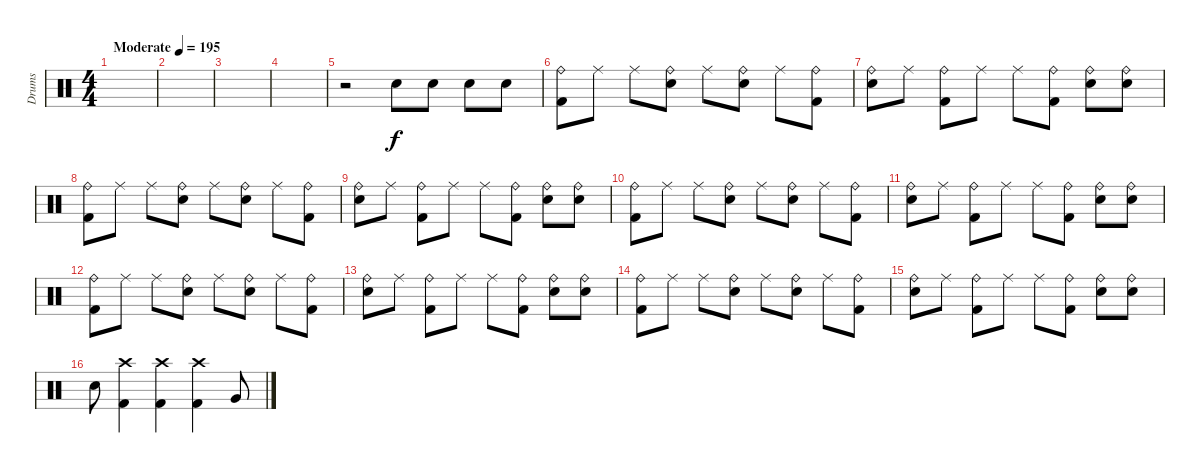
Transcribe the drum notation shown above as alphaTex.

\track ("Drums" "Drums") {instrument percussion}
\staff {score}
\articulation defaults
\ts (4 4)
\tempo (195 "Moderate")
\clef neutral
\ks c
|
|
|
|
r.2 "Snare (hit) 2".8 "Snare (hit) 2".8 "Snare (hit) 2".8 "Snare (hit) 2".8 |
("Ride (bell)" "Kick (hit) 2").8 "Ride (middle)".8 "Ride (middle)".8 ("Ride (bell)" "Snare (hit) 2").8 "Ride (middle)".8 ("Ride (bell)" "Snare (hit) 2").8 "Ride (middle)".8 ("Ride (bell)" "Kick (hit) 2").8 |
("Ride (bell)" "Snare (hit) 2").8 "Ride (middle)".8 ("Ride (bell)" "Kick (hit) 2").8 "Ride (middle)".8 "Ride (middle)".8 ("Ride (bell)" "Kick (hit) 2").8 ("Ride (bell)" "Snare (hit) 2").8 ("Ride (bell)" "Snare (hit) 2").8 |
("Ride (bell)" "Kick (hit) 2").8 "Ride (middle)".8 "Ride (middle)".8 ("Ride (bell)" "Snare (hit) 2").8 "Ride (middle)".8 ("Ride (bell)" "Snare (hit) 2").8 "Ride (middle)".8 ("Ride (bell)" "Kick (hit) 2").8 |
("Ride (bell)" "Snare (hit) 2").8 "Ride (middle)".8 ("Ride (bell)" "Kick (hit) 2").8 "Ride (middle)".8 "Ride (middle)".8 ("Ride (bell)" "Kick (hit) 2").8 ("Ride (bell)" "Snare (hit) 2").8 ("Ride (bell)" "Snare (hit) 2").8 |
("Ride (bell)" "Kick (hit) 2").8 "Ride (middle)".8 "Ride (middle)".8 ("Ride (bell)" "Snare (hit) 2").8 "Ride (middle)".8 ("Ride (bell)" "Snare (hit) 2").8 "Ride (middle)".8 ("Ride (bell)" "Kick (hit) 2").8 |
("Ride (bell)" "Snare (hit) 2").8 "Ride (middle)".8 ("Ride (bell)" "Kick (hit) 2").8 "Ride (middle)".8 "Ride (middle)".8 ("Ride (bell)" "Kick (hit) 2").8 ("Ride (bell)" "Snare (hit) 2").8 ("Ride (bell)" "Snare (hit) 2").8 |
("Ride (bell)" "Kick (hit) 2").8 "Ride (middle)".8 "Ride (middle)".8 ("Ride (bell)" "Snare (hit) 2").8 "Ride (middle)".8 ("Ride (bell)" "Snare (hit) 2").8 "Ride (middle)".8 ("Ride (bell)" "Kick (hit) 2").8 |
("Ride (bell)" "Snare (hit) 2").8 "Ride (middle)".8 ("Ride (bell)" "Kick (hit) 2").8 "Ride (middle)".8 "Ride (middle)".8 ("Ride (bell)" "Kick (hit) 2").8 ("Ride (bell)" "Snare (hit) 2").8 ("Ride (bell)" "Snare (hit) 2").8 |
("Ride (bell)" "Kick (hit) 2").8 "Ride (middle)".8 "Ride (middle)".8 ("Ride (bell)" "Snare (hit) 2").8 "Ride (middle)".8 ("Ride (bell)" "Snare (hit) 2").8 "Ride (middle)".8 ("Ride (bell)" "Kick (hit) 2").8 |
("Ride (bell)" "Snare (hit) 2").8 "Ride (middle)".8 ("Ride (bell)" "Kick (hit) 2").8 "Ride (middle)".8 "Ride (middle)".8 ("Ride (bell)" "Kick (hit) 2").8 ("Ride (bell)" "Snare (hit) 2").8 ("Ride (bell)" "Snare (hit) 2").8 |
"Snare (hit) 2".8 ("Crash high (hit)" "Kick (hit) 2").4 ("Crash high (hit)" "Kick (hit) 2").4 ("Crash high (hit)" "Kick (hit) 2").4 "Very Low Tom (hit)".8
